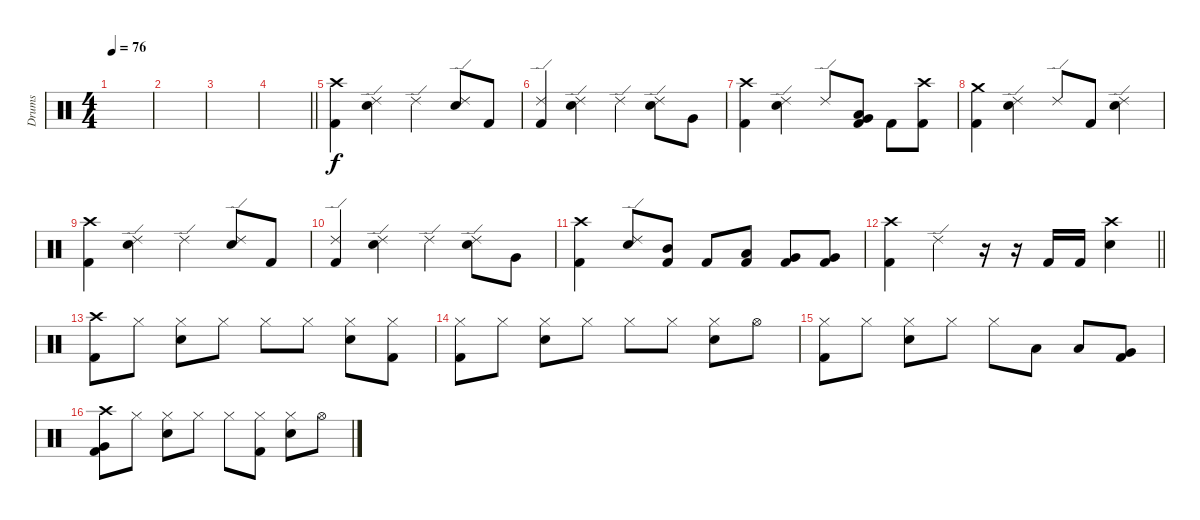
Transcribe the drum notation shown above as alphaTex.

\track ("Drums" "Drums") {instrument percussion}
\staff {score}
\articulation defaults
\ts (4 4)
\tempo 76
\clef neutral
\ks c
|
|
|
\barLineRight lightlight
|
("Crash high (hit)" "Kick (hit) 2").4 ("Ride (edge) 2" "Electric Snare (hit)").4 "Ride (edge) 2".4 ("Ride (edge) 2" "Electric Snare (hit)").8 "Kick (hit) 2".8 |
("Ride (edge) 2" "Kick (hit) 2").4 ("Ride (edge) 2" "Electric Snare (hit)").4 "Ride (edge) 2".4 ("Ride (edge) 2" "Electric Snare (hit)").8 "Very Low Tom (hit)".8 |
("Crash high (hit)" "Kick (hit) 2").4 ("Ride (edge) 2" "Electric Snare (hit)").4 "Ride (edge) 2".8 ("Very Low Tom (hit)" "Low Tom (hit)" "Kick (hit) 2").8 "Kick (hit) 2".8 ("Crash high (hit)" "Kick (hit) 2").8 |
("Crash medium (hit)" "Kick (hit) 2").4 ("Ride (edge) 2" "Electric Snare (hit)").4 "Ride (edge) 2".8 "Kick (hit) 2".8 ("Ride (edge) 2" "Electric Snare (hit)").4 |
("Crash high (hit)" "Kick (hit) 2").4 ("Ride (edge) 2" "Electric Snare (hit)").4 "Ride (edge) 2".4 ("Ride (edge) 2" "Electric Snare (hit)").8 "Kick (hit) 2".8 |
("Ride (edge) 2" "Kick (hit) 2").4 ("Ride (edge) 2" "Electric Snare (hit)").4 "Ride (edge) 2".4 ("Ride (edge) 2" "Electric Snare (hit)").8 "Very Low Tom (hit)".8 |
("Crash high (hit)" "Kick (hit) 2").4 ("Ride (edge) 2" "Electric Snare (hit)").8 ("Mid Tom (hit)" "Kick (hit) 2").8 "Kick (hit) 2".8 ("Low Tom (hit)" "Kick (hit) 2").8 ("Very Low Tom (hit)" "Kick (hit) 2").8 ("Very Low Tom (hit)" "Kick (hit) 2").8 |
\barLineRight lightlight
("Crash high (hit)" "Kick (hit) 2").4 "Ride (edge) 2".4 r.16 r.16 "Kick (hit) 2".16 "Kick (hit) 2".16 ("Crash high (hit)" "Electric Snare (hit)").4 |
("Crash high (hit)" "Kick (hit) 2").8 "Hi-Hat (closed)".8 ("Hi-Hat (closed)" "Electric Snare (hit)").8 "Hi-Hat (closed)".8 "Hi-Hat (closed)".8 "Hi-Hat (closed)".8 ("Hi-Hat (closed)" "Electric Snare (hit)").8 ("Hi-Hat (closed)" "Kick (hit) 2").8 |
("Hi-Hat (closed)" "Kick (hit) 2").8 "Hi-Hat (closed)".8 ("Hi-Hat (closed)" "Electric Snare (hit)").8 "Hi-Hat (closed)".8 "Hi-Hat (closed)".8 "Hi-Hat (closed)".8 ("Hi-Hat (closed)" "Electric Snare (hit)").8 "Hi-Hat (open)".8 |
("Hi-Hat (closed)" "Kick (hit) 2").8 "Hi-Hat (closed)".8 ("Hi-Hat (closed)" "Electric Snare (hit)").8 "Hi-Hat (closed)".8 "Hi-Hat (closed)".8 "Low Tom (hit)".8 "Low Tom (hit)".8 ("Very Low Tom (hit)" "Kick (hit) 2").8 |
("Crash high (hit)" "Very Low Tom (hit)" "Kick (hit) 2").8 "Hi-Hat (closed)".8 ("Hi-Hat (closed)" "Electric Snare (hit)").8 "Hi-Hat (closed)".8 "Hi-Hat (closed)".8 ("Hi-Hat (closed)" "Kick (hit) 2").8 ("Hi-Hat (closed)" "Electric Snare (hit)").8 "Hi-Hat (open)".8
